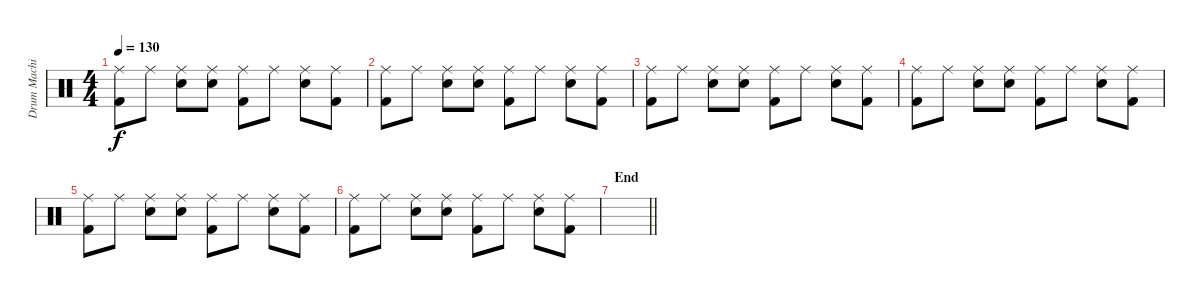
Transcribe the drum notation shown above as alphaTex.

\track ("Drum Machine" "Drum Machi") {instrument percussion}
\staff {score}
\articulation defaults
\ts (4 4)
\tempo 130
\clef neutral
\ks c
("Ride (middle)" "Kick (hit) 2").8{dy f} "Ride (middle)".8 ("Ride (middle)" "Snare (hit) 2").8 ("Ride (middle)" "Snare (hit) 2").8 ("Ride (middle)" "Kick (hit) 2").8 "Ride (middle)".8 ("Ride (middle)" "Snare (hit) 2").8 ("Ride (middle)" "Kick (hit) 2").8 |
("Ride (middle)" "Kick (hit) 2").8 "Ride (middle)".8 ("Ride (middle)" "Snare (hit) 2").8 ("Ride (middle)" "Snare (hit) 2").8 ("Ride (middle)" "Kick (hit) 2").8 "Ride (middle)".8 ("Ride (middle)" "Snare (hit) 2").8 ("Ride (middle)" "Kick (hit) 2").8 |
("Ride (middle)" "Kick (hit) 2").8 "Ride (middle)".8 ("Ride (middle)" "Snare (hit) 2").8 ("Ride (middle)" "Snare (hit) 2").8 ("Ride (middle)" "Kick (hit) 2").8 "Ride (middle)".8 ("Ride (middle)" "Snare (hit) 2").8 ("Ride (middle)" "Kick (hit) 2").8 |
("Ride (middle)" "Kick (hit) 2").8 "Ride (middle)".8 ("Ride (middle)" "Snare (hit) 2").8 ("Ride (middle)" "Snare (hit) 2").8 ("Ride (middle)" "Kick (hit) 2").8 "Ride (middle)".8 ("Ride (middle)" "Snare (hit) 2").8 ("Ride (middle)" "Kick (hit) 2").8 |
("Ride (middle)" "Kick (hit) 2").8 "Ride (middle)".8 ("Ride (middle)" "Snare (hit) 2").8 ("Ride (middle)" "Snare (hit) 2").8 ("Ride (middle)" "Kick (hit) 2").8 "Ride (middle)".8 ("Ride (middle)" "Snare (hit) 2").8 ("Ride (middle)" "Kick (hit) 2").8 |
("Ride (middle)" "Kick (hit) 2").8 "Ride (middle)".8 ("Ride (middle)" "Snare (hit) 2").8 ("Ride (middle)" "Snare (hit) 2").8 ("Ride (middle)" "Kick (hit) 2").8 "Ride (middle)".8 ("Ride (middle)" "Snare (hit) 2").8 ("Ride (middle)" "Kick (hit) 2").8 |
\section ("" "End")
\barLineRight lightlight
